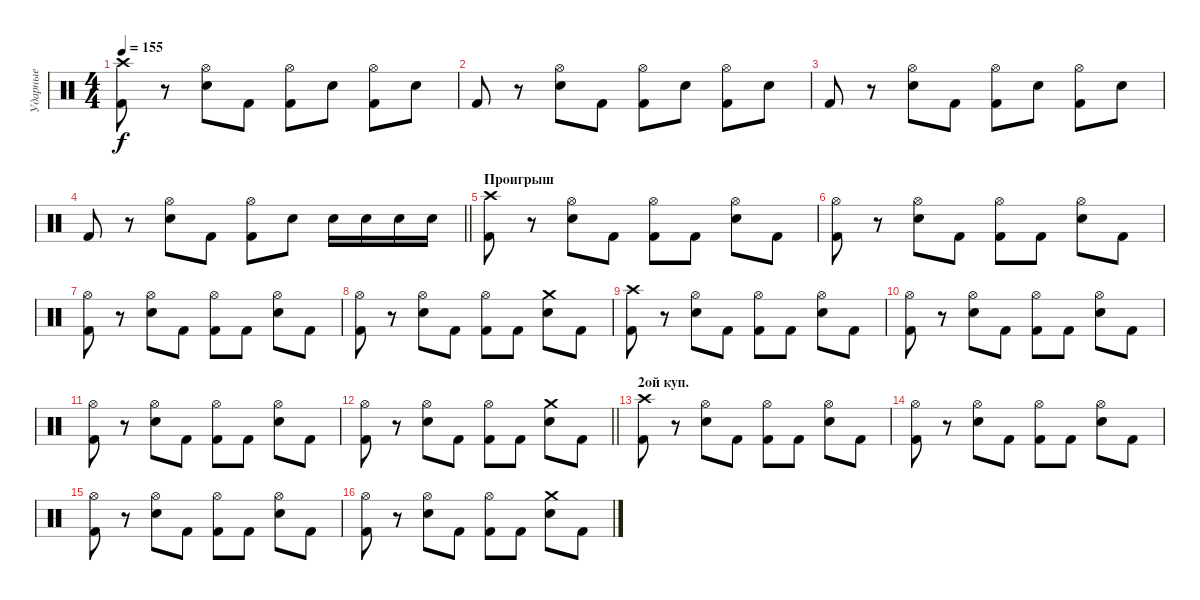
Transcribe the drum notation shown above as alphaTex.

\track ("Ударные" "Ударные") {instrument percussion}
\staff {score}
\articulation defaults
\ts (4 4)
\tempo 155
\clef neutral
\ks c
("Crash high (hit)" "Kick (hit) 2").8{dy f} r.8 ("Hi-Hat (open)" "Electric Snare (hit)").8 "Kick (hit) 2".8 ("Hi-Hat (open)" "Kick (hit) 2").8 "Electric Snare (hit)".8 ("Hi-Hat (open)" "Kick (hit) 2").8 "Electric Snare (hit)".8 |
"Kick (hit) 2".8 r.8 ("Hi-Hat (open)" "Electric Snare (hit)").8 "Kick (hit) 2".8 ("Hi-Hat (open)" "Kick (hit) 2").8 "Electric Snare (hit)".8 ("Hi-Hat (open)" "Kick (hit) 2").8 "Electric Snare (hit)".8 |
"Kick (hit) 2".8 r.8 ("Hi-Hat (open)" "Electric Snare (hit)").8 "Kick (hit) 2".8 ("Hi-Hat (open)" "Kick (hit) 2").8 "Electric Snare (hit)".8 ("Hi-Hat (open)" "Kick (hit) 2").8 "Electric Snare (hit)".8 |
\barLineRight lightlight "Kick (hit) 2".8
r.8 ("Hi-Hat (open)" "Electric Snare (hit)").8 "Kick (hit) 2".8 ("Hi-Hat (open)" "Kick (hit) 2").8 "Electric Snare (hit)".8 "Electric Snare (hit)".16 "Electric Snare (hit)".16 "Electric Snare (hit)".16 "Electric Snare (hit)".16 |
\section ("" "Проигрыш")
("Crash high (hit)" "Kick (hit) 2").8 r.8 ("Hi-Hat (open)" "Electric Snare (hit)").8 "Kick (hit) 2".8 ("Hi-Hat (open)" "Kick (hit) 2").8 "Kick (hit) 2".8 ("Hi-Hat (open)" "Electric Snare (hit)").8 "Kick (hit) 2".8 |
("Hi-Hat (open)" "Kick (hit) 2").8 r.8 ("Hi-Hat (open)" "Electric Snare (hit)").8 "Kick (hit) 2".8 ("Hi-Hat (open)" "Kick (hit) 2").8 "Kick (hit) 2".8 ("Hi-Hat (open)" "Electric Snare (hit)").8 "Kick (hit) 2".8 |
("Hi-Hat (open)" "Kick (hit) 2").8 r.8 ("Hi-Hat (open)" "Electric Snare (hit)").8 "Kick (hit) 2".8 ("Hi-Hat (open)" "Kick (hit) 2").8 "Kick (hit) 2".8 ("Hi-Hat (open)" "Electric Snare (hit)").8 "Kick (hit) 2".8 |
("Hi-Hat (open)" "Kick (hit) 2").8 r.8 ("Hi-Hat (open)" "Electric Snare (hit)").8 "Kick (hit) 2".8 ("Hi-Hat (open)" "Kick (hit) 2").8 "Kick (hit) 2".8 ("Crash medium (hit)" "Electric Snare (hit)").8 "Kick (hit) 2".8 |
("Crash high (hit)" "Kick (hit) 2").8 r.8 ("Hi-Hat (open)" "Electric Snare (hit)").8 "Kick (hit) 2".8 ("Hi-Hat (open)" "Kick (hit) 2").8 "Kick (hit) 2".8 ("Hi-Hat (open)" "Electric Snare (hit)").8 "Kick (hit) 2".8 |
("Hi-Hat (open)" "Kick (hit) 2").8 r.8 ("Hi-Hat (open)" "Electric Snare (hit)").8 "Kick (hit) 2".8 ("Hi-Hat (open)" "Kick (hit) 2").8 "Kick (hit) 2".8 ("Hi-Hat (open)" "Electric Snare (hit)").8 "Kick (hit) 2".8 |
("Hi-Hat (open)" "Kick (hit) 2").8 r.8 ("Hi-Hat (open)" "Electric Snare (hit)").8 "Kick (hit) 2".8 ("Hi-Hat (open)" "Kick (hit) 2").8 "Kick (hit) 2".8 ("Hi-Hat (open)" "Electric Snare (hit)").8 "Kick (hit) 2".8 |
\barLineRight lightlight
("Hi-Hat (open)" "Kick (hit) 2").8 r.8 ("Hi-Hat (open)" "Electric Snare (hit)").8 "Kick (hit) 2".8 ("Hi-Hat (open)" "Kick (hit) 2").8 "Kick (hit) 2".8 ("Crash medium (hit)" "Electric Snare (hit)").8 "Kick (hit) 2".8 |
\section ("" "2ой куп.")
("Crash high (hit)" "Kick (hit) 2").8 r.8 ("Hi-Hat (open)" "Electric Snare (hit)").8 "Kick (hit) 2".8 ("Hi-Hat (open)" "Kick (hit) 2").8 "Kick (hit) 2".8 ("Hi-Hat (open)" "Electric Snare (hit)").8 "Kick (hit) 2".8 |
("Hi-Hat (open)" "Kick (hit) 2").8 r.8 ("Hi-Hat (open)" "Electric Snare (hit)").8 "Kick (hit) 2".8 ("Hi-Hat (open)" "Kick (hit) 2").8 "Kick (hit) 2".8 ("Hi-Hat (open)" "Electric Snare (hit)").8 "Kick (hit) 2".8 |
("Hi-Hat (open)" "Kick (hit) 2").8 r.8 ("Hi-Hat (open)" "Electric Snare (hit)").8 "Kick (hit) 2".8 ("Hi-Hat (open)" "Kick (hit) 2").8 "Kick (hit) 2".8 ("Hi-Hat (open)" "Electric Snare (hit)").8 "Kick (hit) 2".8 |
("Hi-Hat (open)" "Kick (hit) 2").8 r.8 ("Hi-Hat (open)" "Electric Snare (hit)").8 "Kick (hit) 2".8 ("Hi-Hat (open)" "Kick (hit) 2").8 "Kick (hit) 2".8 ("Crash medium (hit)" "Electric Snare (hit)").8 "Kick (hit) 2".8
